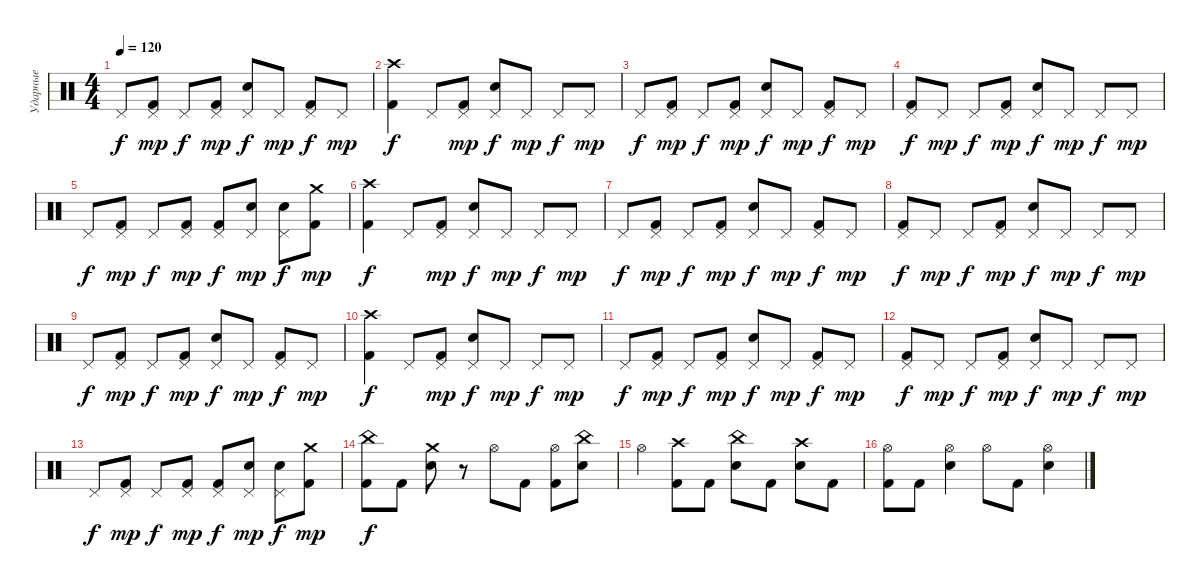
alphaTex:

\track ("Ударные" "Ударные") {instrument percussion}
\staff {score}
\articulation defaults
\ts (4 4)
\tempo 120
\clef neutral
\ks c "Pedal Hi-Hat (hit)".8{dy f}
("Pedal Hi-Hat (hit)" "Kick (hit) 2").8{dy mp} "Pedal Hi-Hat (hit)".8{dy f} ("Pedal Hi-Hat (hit)" "Kick (hit) 2").8{dy mp} ("Pedal Hi-Hat (hit)" "Electric Snare (hit)").8{dy f} "Pedal Hi-Hat (hit)".8{dy mp} ("Pedal Hi-Hat (hit)" "Kick (hit) 2").8{dy f} "Pedal Hi-Hat (hit)".8{dy mp} |
("Crash high (hit)" "Kick (hit) 2").4{dy f} "Pedal Hi-Hat (hit)".8 ("Pedal Hi-Hat (hit)" "Kick (hit) 2").8{dy mp} ("Pedal Hi-Hat (hit)" "Electric Snare (hit)").8{dy f} "Pedal Hi-Hat (hit)".8{dy mp} "Pedal Hi-Hat (hit)".8{dy f} "Pedal Hi-Hat (hit)".8{dy mp} |
"Pedal Hi-Hat (hit)".8{dy f} ("Pedal Hi-Hat (hit)" "Kick (hit) 2").8{dy mp} "Pedal Hi-Hat (hit)".8{dy f} ("Pedal Hi-Hat (hit)" "Kick (hit) 2").8{dy mp} ("Pedal Hi-Hat (hit)" "Electric Snare (hit)").8{dy f} "Pedal Hi-Hat (hit)".8{dy mp} ("Pedal Hi-Hat (hit)" "Kick (hit) 2").8{dy f} "Pedal Hi-Hat (hit)".8{dy mp} |
("Pedal Hi-Hat (hit)" "Kick (hit) 2").8{dy f} "Pedal Hi-Hat (hit)".8{dy mp} "Pedal Hi-Hat (hit)".8{dy f} ("Pedal Hi-Hat (hit)" "Kick (hit) 2").8{dy mp} ("Pedal Hi-Hat (hit)" "Electric Snare (hit)").8{dy f} "Pedal Hi-Hat (hit)".8{dy mp} "Pedal Hi-Hat (hit)".8{dy f} "Pedal Hi-Hat (hit)".8{dy mp} |
"Pedal Hi-Hat (hit)".8{dy f} ("Pedal Hi-Hat (hit)" "Kick (hit) 2").8{dy mp} "Pedal Hi-Hat (hit)".8{dy f} ("Pedal Hi-Hat (hit)" "Kick (hit) 2").8{dy mp} ("Pedal Hi-Hat (hit)" "Kick (hit) 2").8{dy f} ("Pedal Hi-Hat (hit)" "Electric Snare (hit)").8{dy mp} ("Pedal Hi-Hat (hit)" "Electric Snare (hit)").8{dy f} ("Crash medium (hit)" "Kick (hit) 2").8{dy mp} |
("Crash high (hit)" "Kick (hit) 2").4{dy f} "Pedal Hi-Hat (hit)".8 ("Pedal Hi-Hat (hit)" "Kick (hit) 2").8{dy mp} ("Pedal Hi-Hat (hit)" "Electric Snare (hit)").8{dy f} "Pedal Hi-Hat (hit)".8{dy mp} "Pedal Hi-Hat (hit)".8{dy f} "Pedal Hi-Hat (hit)".8{dy mp} |
"Pedal Hi-Hat (hit)".8{dy f} ("Pedal Hi-Hat (hit)" "Kick (hit) 2").8{dy mp} "Pedal Hi-Hat (hit)".8{dy f} ("Pedal Hi-Hat (hit)" "Kick (hit) 2").8{dy mp} ("Pedal Hi-Hat (hit)" "Electric Snare (hit)").8{dy f} "Pedal Hi-Hat (hit)".8{dy mp} ("Pedal Hi-Hat (hit)" "Kick (hit) 2").8{dy f} "Pedal Hi-Hat (hit)".8{dy mp} |
("Pedal Hi-Hat (hit)" "Kick (hit) 2").8{dy f} "Pedal Hi-Hat (hit)".8{dy mp} "Pedal Hi-Hat (hit)".8{dy f} ("Pedal Hi-Hat (hit)" "Kick (hit) 2").8{dy mp} ("Pedal Hi-Hat (hit)" "Electric Snare (hit)").8{dy f} "Pedal Hi-Hat (hit)".8{dy mp} "Pedal Hi-Hat (hit)".8{dy f} "Pedal Hi-Hat (hit)".8{dy mp} |
"Pedal Hi-Hat (hit)".8{dy f} ("Pedal Hi-Hat (hit)" "Kick (hit) 2").8{dy mp} "Pedal Hi-Hat (hit)".8{dy f} ("Pedal Hi-Hat (hit)" "Kick (hit) 2").8{dy mp} ("Pedal Hi-Hat (hit)" "Electric Snare (hit)").8{dy f} "Pedal Hi-Hat (hit)".8{dy mp} ("Pedal Hi-Hat (hit)" "Kick (hit) 2").8{dy f} "Pedal Hi-Hat (hit)".8{dy mp} |
("Crash high (hit)" "Kick (hit) 2").4{dy f} "Pedal Hi-Hat (hit)".8 ("Pedal Hi-Hat (hit)" "Kick (hit) 2").8{dy mp} ("Pedal Hi-Hat (hit)" "Electric Snare (hit)").8{dy f} "Pedal Hi-Hat (hit)".8{dy mp} "Pedal Hi-Hat (hit)".8{dy f} "Pedal Hi-Hat (hit)".8{dy mp} |
"Pedal Hi-Hat (hit)".8{dy f} ("Pedal Hi-Hat (hit)" "Kick (hit) 2").8{dy mp} "Pedal Hi-Hat (hit)".8{dy f} ("Pedal Hi-Hat (hit)" "Kick (hit) 2").8{dy mp} ("Pedal Hi-Hat (hit)" "Electric Snare (hit)").8{dy f} "Pedal Hi-Hat (hit)".8{dy mp} ("Pedal Hi-Hat (hit)" "Kick (hit) 2").8{dy f} "Pedal Hi-Hat (hit)".8{dy mp} |
("Pedal Hi-Hat (hit)" "Kick (hit) 2").8{dy f} "Pedal Hi-Hat (hit)".8{dy mp} "Pedal Hi-Hat (hit)".8{dy f} ("Pedal Hi-Hat (hit)" "Kick (hit) 2").8{dy mp} ("Pedal Hi-Hat (hit)" "Electric Snare (hit)").8{dy f} "Pedal Hi-Hat (hit)".8{dy mp} "Pedal Hi-Hat (hit)".8{dy f} "Pedal Hi-Hat (hit)".8{dy mp} |
"Pedal Hi-Hat (hit)".8{dy f} ("Pedal Hi-Hat (hit)" "Kick (hit) 2").8{dy mp} "Pedal Hi-Hat (hit)".8{dy f} ("Pedal Hi-Hat (hit)" "Kick (hit) 2").8{dy mp} ("Pedal Hi-Hat (hit)" "Kick (hit) 2").8{dy f} ("Pedal Hi-Hat (hit)" "Electric Snare (hit)").8{dy mp} ("Pedal Hi-Hat (hit)" "Electric Snare (hit)").8{dy f} ("Crash medium (hit)" "Kick (hit) 2").8{dy mp} |
("China (hit)" "Kick (hit) 2").8{dy f} "Kick (hit) 2".8 ("Crash medium (hit)" "Electric Snare (hit)").8 r.8 "Hi-Hat (open)".8 "Kick (hit) 2".8 ("Hi-Hat (open)" "Kick (hit) 2").8 ("China (hit)" "Electric Snare (hit)").8 |
"Hi-Hat (open)".4 ("Crash high (hit)" "Kick (hit) 2").8 "Kick (hit) 2".8 ("China (hit)" "Electric Snare (hit)").8 "Kick (hit) 2".8 ("Crash high (hit)" "Electric Snare (hit)").8 "Kick (hit) 2".8 |
("Hi-Hat (open)" "Kick (hit) 2").8 "Kick (hit) 2".8 ("Hi-Hat (open)" "Electric Snare (hit)").4 "Hi-Hat (open)".8 "Kick (hit) 2".8 ("Hi-Hat (open)" "Electric Snare (hit)").4
